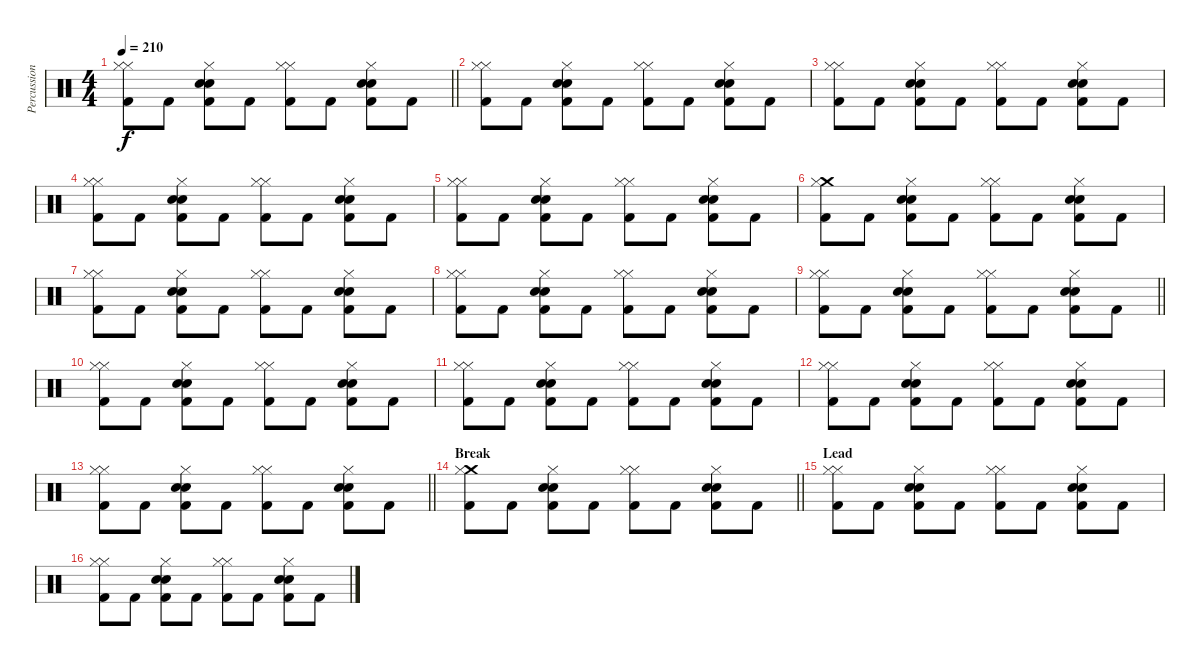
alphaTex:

\track ("Percussion" "Percussion") {instrument percussion}
\staff {score}
\articulation defaults
\ts (4 4)
\tempo 210
\clef neutral
\barLineRight lightlight
\ks c
("Hi-Hat (closed)" "Hi-Hat (closed)" "Kick (hit) 2").8{dy f} "Kick (hit) 2".8 ("Hi-Hat (closed)" "Snare (hit) 2" "Electric Snare (hit)" "Kick (hit) 2").8 "Kick (hit) 2".8 ("Hi-Hat (closed)" "Hi-Hat (closed)" "Kick (hit) 2").8 "Kick (hit) 2".8 ("Hi-Hat (closed)" "Snare (hit) 2" "Electric Snare (hit)" "Kick (hit) 2").8 "Kick (hit) 2".8 |
("Hi-Hat (closed)" "Hi-Hat (closed)" "Kick (hit) 2").8 "Kick (hit) 2".8 ("Hi-Hat (closed)" "Snare (hit) 2" "Electric Snare (hit)" "Kick (hit) 2").8 "Kick (hit) 2".8 ("Hi-Hat (closed)" "Hi-Hat (closed)" "Kick (hit) 2").8 "Kick (hit) 2".8 ("Hi-Hat (closed)" "Snare (hit) 2" "Electric Snare (hit)" "Kick (hit) 2").8 "Kick (hit) 2".8 |
("Hi-Hat (closed)" "Hi-Hat (closed)" "Kick (hit) 2").8 "Kick (hit) 2".8 ("Hi-Hat (closed)" "Snare (hit) 2" "Electric Snare (hit)" "Kick (hit) 2").8 "Kick (hit) 2".8 ("Hi-Hat (closed)" "Hi-Hat (closed)" "Kick (hit) 2").8 "Kick (hit) 2".8 ("Hi-Hat (closed)" "Snare (hit) 2" "Electric Snare (hit)" "Kick (hit) 2").8 "Kick (hit) 2".8 |
("Hi-Hat (closed)" "Hi-Hat (closed)" "Kick (hit) 2").8 "Kick (hit) 2".8 ("Hi-Hat (closed)" "Snare (hit) 2" "Electric Snare (hit)" "Kick (hit) 2").8 "Kick (hit) 2".8 ("Hi-Hat (closed)" "Hi-Hat (closed)" "Kick (hit) 2").8 "Kick (hit) 2".8 ("Hi-Hat (closed)" "Snare (hit) 2" "Electric Snare (hit)" "Kick (hit) 2").8 "Kick (hit) 2".8 |
("Hi-Hat (closed)" "Hi-Hat (closed)" "Kick (hit) 2").8 "Kick (hit) 2".8 ("Hi-Hat (closed)" "Snare (hit) 2" "Electric Snare (hit)" "Kick (hit) 2").8 "Kick (hit) 2".8 ("Hi-Hat (closed)" "Hi-Hat (closed)" "Kick (hit) 2").8 "Kick (hit) 2".8 ("Hi-Hat (closed)" "Snare (hit) 2" "Electric Snare (hit)" "Kick (hit) 2").8 "Kick (hit) 2".8 |
("Crash medium (hit)" "Hi-Hat (closed)" "Kick (hit) 2").8 "Kick (hit) 2".8 ("Hi-Hat (closed)" "Snare (hit) 2" "Electric Snare (hit)" "Kick (hit) 2").8 "Kick (hit) 2".8 ("Hi-Hat (closed)" "Hi-Hat (closed)" "Kick (hit) 2").8 "Kick (hit) 2".8 ("Hi-Hat (closed)" "Snare (hit) 2" "Electric Snare (hit)" "Kick (hit) 2").8 "Kick (hit) 2".8 |
("Hi-Hat (closed)" "Hi-Hat (closed)" "Kick (hit) 2").8 "Kick (hit) 2".8 ("Hi-Hat (closed)" "Snare (hit) 2" "Electric Snare (hit)" "Kick (hit) 2").8 "Kick (hit) 2".8 ("Hi-Hat (closed)" "Hi-Hat (closed)" "Kick (hit) 2").8 "Kick (hit) 2".8 ("Hi-Hat (closed)" "Snare (hit) 2" "Electric Snare (hit)" "Kick (hit) 2").8 "Kick (hit) 2".8 |
("Hi-Hat (closed)" "Hi-Hat (closed)" "Kick (hit) 2").8 "Kick (hit) 2".8 ("Hi-Hat (closed)" "Snare (hit) 2" "Electric Snare (hit)" "Kick (hit) 2").8 "Kick (hit) 2".8 ("Hi-Hat (closed)" "Hi-Hat (closed)" "Kick (hit) 2").8 "Kick (hit) 2".8 ("Hi-Hat (closed)" "Snare (hit) 2" "Electric Snare (hit)" "Kick (hit) 2").8 "Kick (hit) 2".8 |
\barLineRight lightlight
("Hi-Hat (closed)" "Hi-Hat (closed)" "Kick (hit) 2").8 "Kick (hit) 2".8 ("Hi-Hat (closed)" "Snare (hit) 2" "Electric Snare (hit)" "Kick (hit) 2").8 "Kick (hit) 2".8 ("Hi-Hat (closed)" "Hi-Hat (closed)" "Kick (hit) 2").8 "Kick (hit) 2".8 ("Hi-Hat (closed)" "Snare (hit) 2" "Electric Snare (hit)" "Kick (hit) 2").8 "Kick (hit) 2".8 |
("Hi-Hat (closed)" "Hi-Hat (closed)" "Kick (hit) 2").8 "Kick (hit) 2".8 ("Hi-Hat (closed)" "Snare (hit) 2" "Electric Snare (hit)" "Kick (hit) 2").8 "Kick (hit) 2".8 ("Hi-Hat (closed)" "Hi-Hat (closed)" "Kick (hit) 2").8 "Kick (hit) 2".8 ("Hi-Hat (closed)" "Snare (hit) 2" "Electric Snare (hit)" "Kick (hit) 2").8 "Kick (hit) 2".8 |
("Hi-Hat (closed)" "Hi-Hat (closed)" "Kick (hit) 2").8 "Kick (hit) 2".8 ("Hi-Hat (closed)" "Snare (hit) 2" "Electric Snare (hit)" "Kick (hit) 2").8 "Kick (hit) 2".8 ("Hi-Hat (closed)" "Hi-Hat (closed)" "Kick (hit) 2").8 "Kick (hit) 2".8 ("Hi-Hat (closed)" "Snare (hit) 2" "Electric Snare (hit)" "Kick (hit) 2").8 "Kick (hit) 2".8 |
("Hi-Hat (closed)" "Hi-Hat (closed)" "Kick (hit) 2").8 "Kick (hit) 2".8 ("Hi-Hat (closed)" "Snare (hit) 2" "Electric Snare (hit)" "Kick (hit) 2").8 "Kick (hit) 2".8 ("Hi-Hat (closed)" "Hi-Hat (closed)" "Kick (hit) 2").8 "Kick (hit) 2".8 ("Hi-Hat (closed)" "Snare (hit) 2" "Electric Snare (hit)" "Kick (hit) 2").8 "Kick (hit) 2".8 |
\barLineRight lightlight
("Hi-Hat (closed)" "Hi-Hat (closed)" "Kick (hit) 2").8 "Kick (hit) 2".8 ("Hi-Hat (closed)" "Snare (hit) 2" "Electric Snare (hit)" "Kick (hit) 2").8 "Kick (hit) 2".8 ("Hi-Hat (closed)" "Hi-Hat (closed)" "Kick (hit) 2").8 "Kick (hit) 2".8 ("Hi-Hat (closed)" "Snare (hit) 2" "Electric Snare (hit)" "Kick (hit) 2").8 "Kick (hit) 2".8 |
\section ("" "Break")
\barLineRight lightlight
("Crash medium (hit)" "Hi-Hat (closed)" "Kick (hit) 2").8 "Kick (hit) 2".8 ("Hi-Hat (closed)" "Snare (hit) 2" "Electric Snare (hit)" "Kick (hit) 2").8 "Kick (hit) 2".8 ("Hi-Hat (closed)" "Hi-Hat (closed)" "Kick (hit) 2").8 "Kick (hit) 2".8 ("Hi-Hat (closed)" "Snare (hit) 2" "Electric Snare (hit)" "Kick (hit) 2").8 "Kick (hit) 2".8 |
\section ("" "Lead")
("Hi-Hat (closed)" "Hi-Hat (closed)" "Kick (hit) 2").8 "Kick (hit) 2".8 ("Hi-Hat (closed)" "Snare (hit) 2" "Electric Snare (hit)" "Kick (hit) 2").8 "Kick (hit) 2".8 ("Hi-Hat (closed)" "Hi-Hat (closed)" "Kick (hit) 2").8 "Kick (hit) 2".8 ("Hi-Hat (closed)" "Snare (hit) 2" "Electric Snare (hit)" "Kick (hit) 2").8 "Kick (hit) 2".8 |
("Hi-Hat (closed)" "Hi-Hat (closed)" "Kick (hit) 2").8 "Kick (hit) 2".8 ("Hi-Hat (closed)" "Snare (hit) 2" "Electric Snare (hit)" "Kick (hit) 2").8 "Kick (hit) 2".8 ("Hi-Hat (closed)" "Hi-Hat (closed)" "Kick (hit) 2").8 "Kick (hit) 2".8 ("Hi-Hat (closed)" "Snare (hit) 2" "Electric Snare (hit)" "Kick (hit) 2").8 "Kick (hit) 2".8
